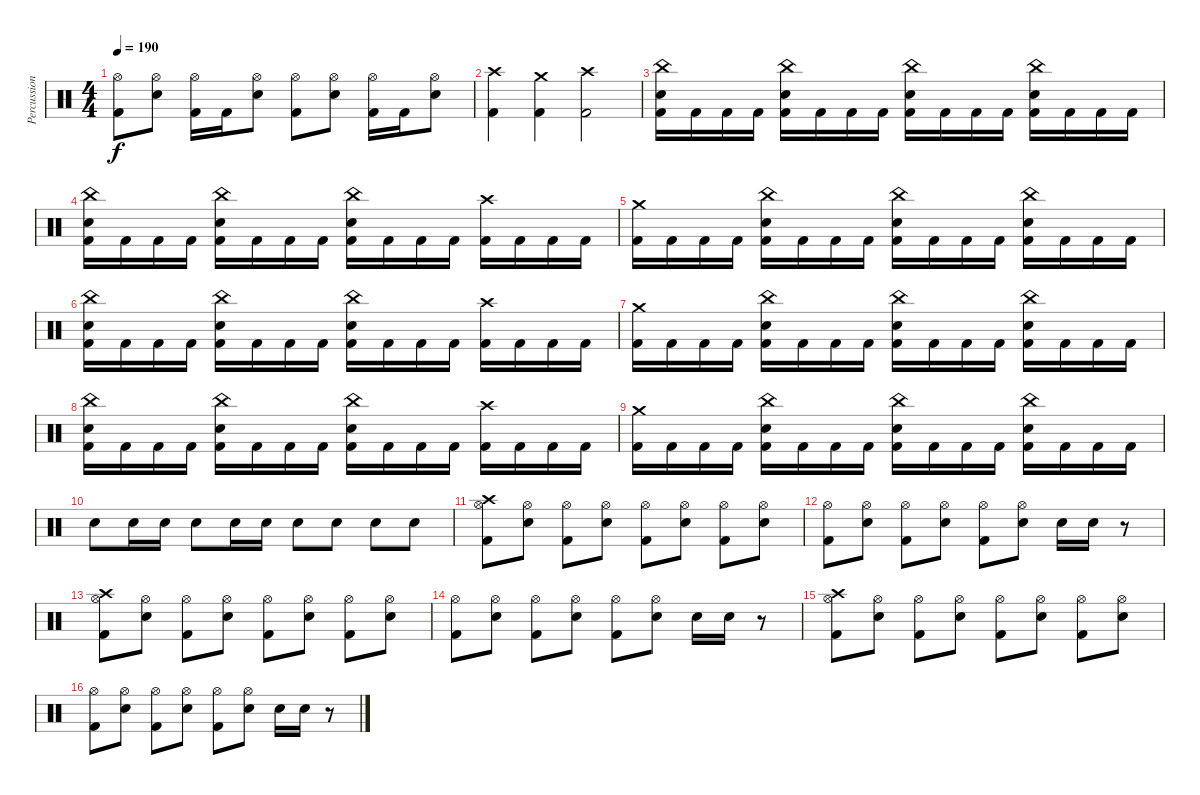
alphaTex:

\track ("Percussion" "Percussion") {instrument percussion}
\staff {score}
\articulation defaults
\ts (4 4)
\tempo 190
\clef neutral
\ks c
("Hi-Hat (open)" "Kick (hit) 2").8{dy f} ("Hi-Hat (open)" "Snare (hit) 2").8 ("Hi-Hat (open)" "Kick (hit) 2").16 "Kick (hit) 2".16 ("Hi-Hat (open)" "Snare (hit) 2").8 ("Hi-Hat (open)" "Kick (hit) 2").8 ("Hi-Hat (open)" "Snare (hit) 2").8 ("Hi-Hat (open)" "Kick (hit) 2").16 "Kick (hit) 2".16 ("Hi-Hat (open)" "Snare (hit) 2").8 |
("Crash high (hit)" "Kick (hit) 2").4 ("Crash medium (hit)" "Kick (hit) 2").4 ("Crash high (hit)" "Kick (hit) 2").2 |
("China (hit)" "Snare (hit) 2" "Kick (hit) 2").16 "Kick (hit) 2".16 "Kick (hit) 2".16 "Kick (hit) 2".16 ("China (hit)" "Snare (hit) 2" "Kick (hit) 2").16 "Kick (hit) 2".16 "Kick (hit) 2".16 "Kick (hit) 2".16 ("China (hit)" "Snare (hit) 2" "Kick (hit) 2").16 "Kick (hit) 2".16 "Kick (hit) 2".16 "Kick (hit) 2".16 ("China (hit)" "Snare (hit) 2" "Kick (hit) 2").16 "Kick (hit) 2".16 "Kick (hit) 2".16 "Kick (hit) 2".16 |
("China (hit)" "Snare (hit) 2" "Kick (hit) 2").16 "Kick (hit) 2".16 "Kick (hit) 2".16 "Kick (hit) 2".16 ("China (hit)" "Snare (hit) 2" "Kick (hit) 2").16 "Kick (hit) 2".16 "Kick (hit) 2".16 "Kick (hit) 2".16 ("China (hit)" "Snare (hit) 2" "Kick (hit) 2").16 "Kick (hit) 2".16 "Kick (hit) 2".16 "Kick (hit) 2".16 ("Crash high (hit)" "Kick (hit) 2").16 "Kick (hit) 2".16 "Kick (hit) 2".16 "Kick (hit) 2".16 |
("Crash medium (hit)" "Kick (hit) 2").16 "Kick (hit) 2".16 "Kick (hit) 2".16 "Kick (hit) 2".16 ("China (hit)" "Snare (hit) 2" "Kick (hit) 2").16 "Kick (hit) 2".16 "Kick (hit) 2".16 "Kick (hit) 2".16 ("China (hit)" "Snare (hit) 2" "Kick (hit) 2").16 "Kick (hit) 2".16 "Kick (hit) 2".16 "Kick (hit) 2".16 ("China (hit)" "Snare (hit) 2" "Kick (hit) 2").16 "Kick (hit) 2".16 "Kick (hit) 2".16 "Kick (hit) 2".16 |
("China (hit)" "Snare (hit) 2" "Kick (hit) 2").16 "Kick (hit) 2".16 "Kick (hit) 2".16 "Kick (hit) 2".16 ("China (hit)" "Snare (hit) 2" "Kick (hit) 2").16 "Kick (hit) 2".16 "Kick (hit) 2".16 "Kick (hit) 2".16 ("China (hit)" "Snare (hit) 2" "Kick (hit) 2").16 "Kick (hit) 2".16 "Kick (hit) 2".16 "Kick (hit) 2".16 ("Crash high (hit)" "Kick (hit) 2").16 "Kick (hit) 2".16 "Kick (hit) 2".16 "Kick (hit) 2".16 |
("Crash medium (hit)" "Kick (hit) 2").16 "Kick (hit) 2".16 "Kick (hit) 2".16 "Kick (hit) 2".16 ("China (hit)" "Snare (hit) 2" "Kick (hit) 2").16 "Kick (hit) 2".16 "Kick (hit) 2".16 "Kick (hit) 2".16 ("China (hit)" "Snare (hit) 2" "Kick (hit) 2").16 "Kick (hit) 2".16 "Kick (hit) 2".16 "Kick (hit) 2".16 ("China (hit)" "Snare (hit) 2" "Kick (hit) 2").16 "Kick (hit) 2".16 "Kick (hit) 2".16 "Kick (hit) 2".16 |
("China (hit)" "Snare (hit) 2" "Kick (hit) 2").16 "Kick (hit) 2".16 "Kick (hit) 2".16 "Kick (hit) 2".16 ("China (hit)" "Snare (hit) 2" "Kick (hit) 2").16 "Kick (hit) 2".16 "Kick (hit) 2".16 "Kick (hit) 2".16 ("China (hit)" "Snare (hit) 2" "Kick (hit) 2").16 "Kick (hit) 2".16 "Kick (hit) 2".16 "Kick (hit) 2".16 ("Crash high (hit)" "Kick (hit) 2").16 "Kick (hit) 2".16 "Kick (hit) 2".16 "Kick (hit) 2".16 |
("Crash medium (hit)" "Kick (hit) 2").16 "Kick (hit) 2".16 "Kick (hit) 2".16 "Kick (hit) 2".16 ("China (hit)" "Snare (hit) 2" "Kick (hit) 2").16 "Kick (hit) 2".16 "Kick (hit) 2".16 "Kick (hit) 2".16 ("China (hit)" "Snare (hit) 2" "Kick (hit) 2").16 "Kick (hit) 2".16 "Kick (hit) 2".16 "Kick (hit) 2".16 ("China (hit)" "Snare (hit) 2" "Kick (hit) 2").16 "Kick (hit) 2".16 "Kick (hit) 2".16 "Kick (hit) 2".16 |
"Snare (hit) 2".8 "Snare (hit) 2".16 "Snare (hit) 2".16 "Snare (hit) 2".8 "Snare (hit) 2".16 "Snare (hit) 2".16 "Snare (hit) 2".8 "Snare (hit) 2".8 "Snare (hit) 2".8 "Snare (hit) 2".8 |
("Crash high (hit)" "Hi-Hat (open)" "Kick (hit) 2").8 ("Hi-Hat (open)" "Snare (hit) 2").8 ("Hi-Hat (open)" "Kick (hit) 2").8 ("Hi-Hat (open)" "Snare (hit) 2").8 ("Hi-Hat (open)" "Kick (hit) 2").8 ("Hi-Hat (open)" "Snare (hit) 2").8 ("Hi-Hat (open)" "Kick (hit) 2").8 ("Hi-Hat (open)" "Snare (hit) 2").8 |
("Hi-Hat (open)" "Kick (hit) 2").8 ("Hi-Hat (open)" "Snare (hit) 2").8 ("Hi-Hat (open)" "Kick (hit) 2").8 ("Hi-Hat (open)" "Snare (hit) 2").8 ("Hi-Hat (open)" "Kick (hit) 2").8 ("Hi-Hat (open)" "Snare (hit) 2").8 "Snare (hit) 2".16 "Snare (hit) 2".16 r.8 |
("Crash high (hit)" "Hi-Hat (open)" "Kick (hit) 2").8 ("Hi-Hat (open)" "Snare (hit) 2").8 ("Hi-Hat (open)" "Kick (hit) 2").8 ("Hi-Hat (open)" "Snare (hit) 2").8 ("Hi-Hat (open)" "Kick (hit) 2").8 ("Hi-Hat (open)" "Snare (hit) 2").8 ("Hi-Hat (open)" "Kick (hit) 2").8 ("Hi-Hat (open)" "Snare (hit) 2").8 |
("Hi-Hat (open)" "Kick (hit) 2").8 ("Hi-Hat (open)" "Snare (hit) 2").8 ("Hi-Hat (open)" "Kick (hit) 2").8 ("Hi-Hat (open)" "Snare (hit) 2").8 ("Hi-Hat (open)" "Kick (hit) 2").8 ("Hi-Hat (open)" "Snare (hit) 2").8 "Snare (hit) 2".16 "Snare (hit) 2".16 r.8 |
("Crash high (hit)" "Hi-Hat (open)" "Kick (hit) 2").8 ("Hi-Hat (open)" "Snare (hit) 2").8 ("Hi-Hat (open)" "Kick (hit) 2").8 ("Hi-Hat (open)" "Snare (hit) 2").8 ("Hi-Hat (open)" "Kick (hit) 2").8 ("Hi-Hat (open)" "Snare (hit) 2").8 ("Hi-Hat (open)" "Kick (hit) 2").8 ("Hi-Hat (open)" "Snare (hit) 2").8 |
("Hi-Hat (open)" "Kick (hit) 2").8 ("Hi-Hat (open)" "Snare (hit) 2").8 ("Hi-Hat (open)" "Kick (hit) 2").8 ("Hi-Hat (open)" "Snare (hit) 2").8 ("Hi-Hat (open)" "Kick (hit) 2").8 ("Hi-Hat (open)" "Snare (hit) 2").8 "Snare (hit) 2".16 "Snare (hit) 2".16 r.8
